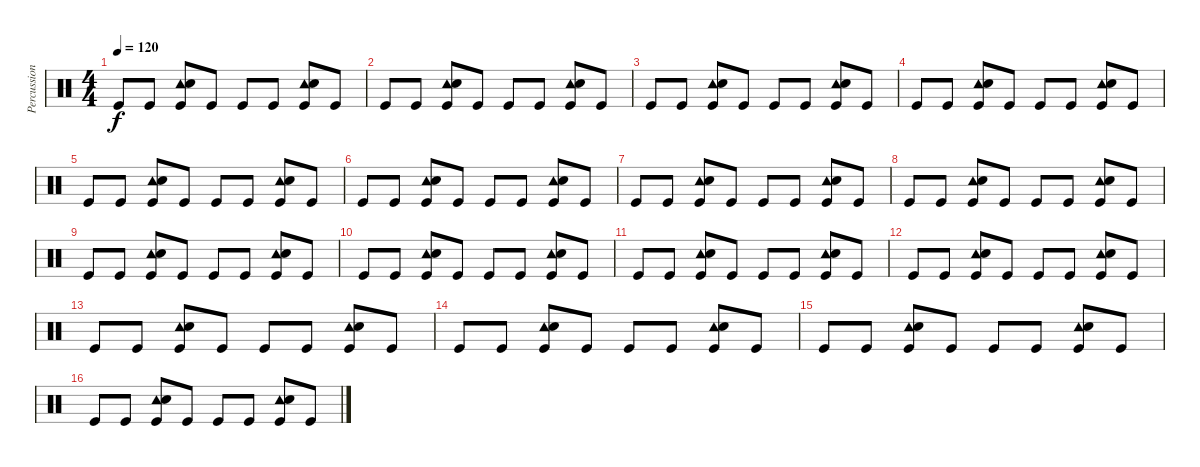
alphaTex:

\track ("Percussions" "Percussion") {instrument percussion}
\staff {score}
\articulation defaults
\ts (4 4)
\tempo 120
\clef neutral
\ks c "Kick (hit)".8{dy f} "Kick (hit)".8
("Kick (hit)" "Tambourine (hit)" "Snare (hit) 2").8 "Kick (hit)".8 "Kick (hit)".8 "Kick (hit)".8 ("Kick (hit)" "Tambourine (hit)" "Snare (hit) 2").8 "Kick (hit)".8 |
"Kick (hit)".8 "Kick (hit)".8 ("Kick (hit)" "Tambourine (hit)" "Snare (hit) 2").8 "Kick (hit)".8 "Kick (hit)".8 "Kick (hit)".8 ("Kick (hit)" "Tambourine (hit)" "Snare (hit) 2").8 "Kick (hit)".8 |
"Kick (hit)".8 "Kick (hit)".8 ("Kick (hit)" "Tambourine (hit)" "Snare (hit) 2").8 "Kick (hit)".8 "Kick (hit)".8 "Kick (hit)".8 ("Kick (hit)" "Tambourine (hit)" "Snare (hit) 2").8 "Kick (hit)".8 |
"Kick (hit)".8 "Kick (hit)".8 ("Kick (hit)" "Tambourine (hit)" "Snare (hit) 2").8 "Kick (hit)".8 "Kick (hit)".8 "Kick (hit)".8 ("Kick (hit)" "Tambourine (hit)" "Snare (hit) 2").8 "Kick (hit)".8 |
"Kick (hit)".8 "Kick (hit)".8 ("Kick (hit)" "Tambourine (hit)" "Snare (hit) 2").8 "Kick (hit)".8 "Kick (hit)".8 "Kick (hit)".8 ("Kick (hit)" "Tambourine (hit)" "Snare (hit) 2").8 "Kick (hit)".8 |
"Kick (hit)".8 "Kick (hit)".8 ("Kick (hit)" "Tambourine (hit)" "Snare (hit) 2").8 "Kick (hit)".8 "Kick (hit)".8 "Kick (hit)".8 ("Kick (hit)" "Tambourine (hit)" "Snare (hit) 2").8 "Kick (hit)".8 |
"Kick (hit)".8 "Kick (hit)".8 ("Kick (hit)" "Tambourine (hit)" "Snare (hit) 2").8 "Kick (hit)".8 "Kick (hit)".8 "Kick (hit)".8 ("Kick (hit)" "Tambourine (hit)" "Snare (hit) 2").8 "Kick (hit)".8 |
"Kick (hit)".8 "Kick (hit)".8 ("Kick (hit)" "Tambourine (hit)" "Snare (hit) 2").8 "Kick (hit)".8 "Kick (hit)".8 "Kick (hit)".8 ("Kick (hit)" "Tambourine (hit)" "Snare (hit) 2").8 "Kick (hit)".8 |
"Kick (hit)".8 "Kick (hit)".8 ("Kick (hit)" "Tambourine (hit)" "Snare (hit) 2").8 "Kick (hit)".8 "Kick (hit)".8 "Kick (hit)".8 ("Kick (hit)" "Tambourine (hit)" "Snare (hit) 2").8 "Kick (hit)".8 |
"Kick (hit)".8 "Kick (hit)".8 ("Kick (hit)" "Tambourine (hit)" "Snare (hit) 2").8 "Kick (hit)".8 "Kick (hit)".8 "Kick (hit)".8 ("Kick (hit)" "Tambourine (hit)" "Snare (hit) 2").8 "Kick (hit)".8 |
"Kick (hit)".8 "Kick (hit)".8 ("Kick (hit)" "Tambourine (hit)" "Snare (hit) 2").8 "Kick (hit)".8 "Kick (hit)".8 "Kick (hit)".8 ("Kick (hit)" "Tambourine (hit)" "Snare (hit) 2").8 "Kick (hit)".8 |
"Kick (hit)".8 "Kick (hit)".8 ("Kick (hit)" "Tambourine (hit)" "Snare (hit) 2").8 "Kick (hit)".8 "Kick (hit)".8 "Kick (hit)".8 ("Kick (hit)" "Tambourine (hit)" "Snare (hit) 2").8 "Kick (hit)".8 |
"Kick (hit)".8 "Kick (hit)".8 ("Kick (hit)" "Tambourine (hit)" "Snare (hit) 2").8 "Kick (hit)".8 "Kick (hit)".8 "Kick (hit)".8 ("Kick (hit)" "Tambourine (hit)" "Snare (hit) 2").8 "Kick (hit)".8 |
"Kick (hit)".8 "Kick (hit)".8 ("Kick (hit)" "Tambourine (hit)" "Snare (hit) 2").8 "Kick (hit)".8 "Kick (hit)".8 "Kick (hit)".8 ("Kick (hit)" "Tambourine (hit)" "Snare (hit) 2").8 "Kick (hit)".8 |
"Kick (hit)".8 "Kick (hit)".8 ("Kick (hit)" "Tambourine (hit)" "Snare (hit) 2").8 "Kick (hit)".8 "Kick (hit)".8 "Kick (hit)".8 ("Kick (hit)" "Tambourine (hit)" "Snare (hit) 2").8 "Kick (hit)".8 |
"Kick (hit)".8 "Kick (hit)".8 ("Kick (hit)" "Tambourine (hit)" "Snare (hit) 2").8 "Kick (hit)".8 "Kick (hit)".8 "Kick (hit)".8 ("Kick (hit)" "Tambourine (hit)" "Snare (hit) 2").8 "Kick (hit)".8
